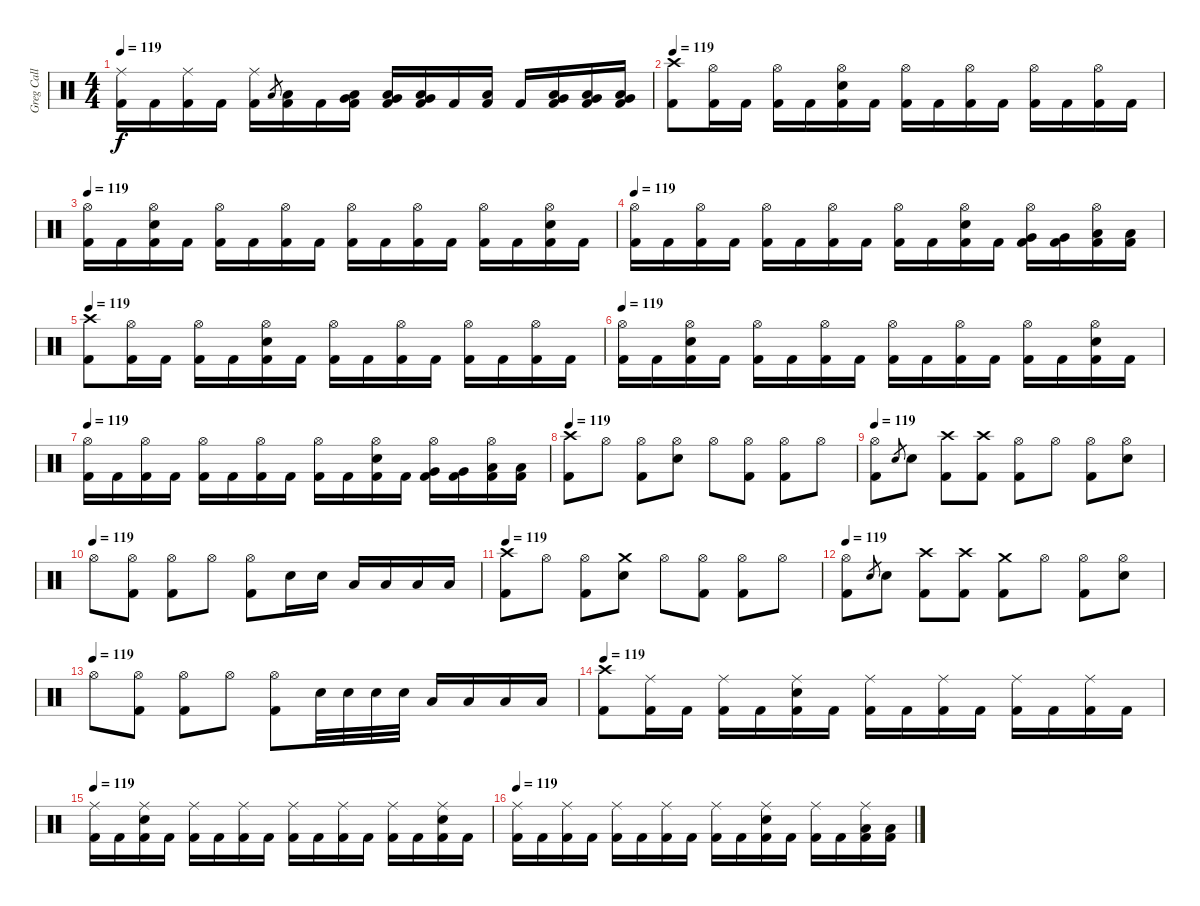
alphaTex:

\track ("Greg Call (Drums)" "Greg Call ") {instrument percussion}
\staff {score}
\articulation defaults
\ts (4 4)
\tempo 119
\clef neutral
\ks c
("Ride (middle)" "Kick (hit) 2").16{dy f} "Kick (hit) 2".16 ("Ride (middle)" "Kick (hit) 2").16 "Kick (hit) 2".16 ("Ride (middle)" "Kick (hit) 2").16 "Low Floor Tom (hit)".8{gr} ("Low Floor Tom (hit)" "Kick (hit) 2").16 "Kick (hit) 2".16 ("Very Low Tom (hit)" "Low Tom (hit)" "Kick (hit) 2").16 ("Very Low Tom (hit)" "Low Tom (hit)" "Kick (hit) 2").16 ("Very Low Tom (hit)" "Low Tom (hit)" "Kick (hit) 2").16 "Kick (hit) 2".16 ("Low Floor Tom (hit)" "Kick (hit) 2").16 "Kick (hit) 2".16 ("Very Low Tom (hit)" "Low Tom (hit)" "Kick (hit) 2").16 ("Very Low Tom (hit)" "Low Tom (hit)" "Kick (hit) 2").16 ("Very Low Tom (hit)" "Low Tom (hit)" "Kick (hit) 2").16 |
\tempo 119
("Crash high (hit)" "Kick (hit) 2").8 ("Hi-Hat (open)" "Kick (hit) 2").16 "Kick (hit) 2".16 ("Hi-Hat (open)" "Kick (hit) 2").16 "Kick (hit) 2".16 ("Snare (hit) 2" "Hi-Hat (open)" "Kick (hit) 2").16 "Kick (hit) 2".16 ("Hi-Hat (open)" "Kick (hit) 2").16 "Kick (hit) 2".16 ("Hi-Hat (open)" "Kick (hit) 2").16 "Kick (hit) 2".16 ("Hi-Hat (open)" "Kick (hit) 2").16 "Kick (hit) 2".16 ("Hi-Hat (open)" "Kick (hit) 2").16 "Kick (hit) 2".16 |
\tempo 119
("Hi-Hat (open)" "Kick (hit) 2").16 "Kick (hit) 2".16 ("Snare (hit) 2" "Hi-Hat (open)" "Kick (hit) 2").16 "Kick (hit) 2".16 ("Hi-Hat (open)" "Kick (hit) 2").16 "Kick (hit) 2".16 ("Hi-Hat (open)" "Kick (hit) 2").16 "Kick (hit) 2".16 ("Hi-Hat (open)" "Kick (hit) 2").16 "Kick (hit) 2".16 ("Hi-Hat (open)" "Kick (hit) 2").16 "Kick (hit) 2".16 ("Hi-Hat (open)" "Kick (hit) 2").16 "Kick (hit) 2".16 ("Snare (hit) 2" "Hi-Hat (open)" "Kick (hit) 2").16 "Kick (hit) 2".16 |
\tempo 119
("Hi-Hat (open)" "Kick (hit) 2").16 "Kick (hit) 2".16 ("Hi-Hat (open)" "Kick (hit) 2").16 "Kick (hit) 2".16 ("Hi-Hat (open)" "Kick (hit) 2").16 "Kick (hit) 2".16 ("Hi-Hat (open)" "Kick (hit) 2").16 "Kick (hit) 2".16 ("Hi-Hat (open)" "Kick (hit) 2").16 "Kick (hit) 2".16 ("Hi-Hat (open)" "Snare (hit) 2" "Kick (hit) 2").16 "Kick (hit) 2".16 ("Very Low Tom (hit)" "Hi-Hat (open)" "Kick (hit) 2").16 ("Very Low Tom (hit)" "Kick (hit) 2").16 ("Low Floor Tom (hit)" "Hi-Hat (open)" "Kick (hit) 2").16 ("Low Floor Tom (hit)" "Kick (hit) 2").16 |
\tempo 119
("Crash high (hit)" "Kick (hit) 2").8 ("Hi-Hat (open)" "Kick (hit) 2").16 "Kick (hit) 2".16 ("Hi-Hat (open)" "Kick (hit) 2").16 "Kick (hit) 2".16 ("Snare (hit) 2" "Hi-Hat (open)" "Kick (hit) 2").16 "Kick (hit) 2".16 ("Hi-Hat (open)" "Kick (hit) 2").16 "Kick (hit) 2".16 ("Hi-Hat (open)" "Kick (hit) 2").16 "Kick (hit) 2".16 ("Hi-Hat (open)" "Kick (hit) 2").16 "Kick (hit) 2".16 ("Hi-Hat (open)" "Kick (hit) 2").16 "Kick (hit) 2".16 |
\tempo 119
("Hi-Hat (open)" "Kick (hit) 2").16 "Kick (hit) 2".16 ("Snare (hit) 2" "Hi-Hat (open)" "Kick (hit) 2").16 "Kick (hit) 2".16 ("Hi-Hat (open)" "Kick (hit) 2").16 "Kick (hit) 2".16 ("Hi-Hat (open)" "Kick (hit) 2").16 "Kick (hit) 2".16 ("Hi-Hat (open)" "Kick (hit) 2").16 "Kick (hit) 2".16 ("Hi-Hat (open)" "Kick (hit) 2").16 "Kick (hit) 2".16 ("Hi-Hat (open)" "Kick (hit) 2").16 "Kick (hit) 2".16 ("Snare (hit) 2" "Hi-Hat (open)" "Kick (hit) 2").16 "Kick (hit) 2".16 |
\tempo 119
("Hi-Hat (open)" "Kick (hit) 2").16 "Kick (hit) 2".16 ("Hi-Hat (open)" "Kick (hit) 2").16 "Kick (hit) 2".16 ("Hi-Hat (open)" "Kick (hit) 2").16 "Kick (hit) 2".16 ("Hi-Hat (open)" "Kick (hit) 2").16 "Kick (hit) 2".16 ("Hi-Hat (open)" "Kick (hit) 2").16 "Kick (hit) 2".16 ("Hi-Hat (open)" "Snare (hit) 2" "Kick (hit) 2").16 "Kick (hit) 2".16 ("Very Low Tom (hit)" "Hi-Hat (open)" "Kick (hit) 2").16 ("Very Low Tom (hit)" "Kick (hit) 2").16 ("Low Floor Tom (hit)" "Hi-Hat (open)" "Kick (hit) 2").16 ("Low Floor Tom (hit)" "Kick (hit) 2").16 |
\tempo 119
("Crash high (hit)" "Kick (hit) 2").8 "Hi-Hat (open)".8 ("Hi-Hat (open)" "Kick (hit) 2").8 ("Hi-Hat (open)" "Snare (hit) 2").8 "Hi-Hat (open)".8 ("Hi-Hat (open)" "Kick (hit) 2").8 ("Hi-Hat (open)" "Kick (hit) 2").8 "Hi-Hat (open)".8 |
\tempo 119
("Hi-Hat (open)" "Kick (hit) 2").8 "Snare (hit) 2".8{gr} "Snare (hit) 2".8 ("Crash high (hit)" "Kick (hit) 2").8 ("Crash high (hit)" "Kick (hit) 2").8 ("Hi-Hat (open)" "Kick (hit) 2").8 "Hi-Hat (open)".8 ("Hi-Hat (open)" "Kick (hit) 2").8 ("Hi-Hat (open)" "Snare (hit) 2").8 |
\tempo (119)
"Hi-Hat (open)".8 ("Hi-Hat (open)" "Kick (hit) 2").8 ("Hi-Hat (open)" "Kick (hit) 2").8 "Hi-Hat (open)".8 ("Hi-Hat (open)" "Kick (hit) 2").8 "Snare (hit) 2".16 "Snare (hit) 2".16 "Low Tom (hit)".16 "Low Tom (hit)".16 "Low Floor Tom (hit)".16 "Low Floor Tom (hit)".16 |
\tempo 119
("Crash high (hit)" "Kick (hit) 2").8 "Hi-Hat (open)".8 ("Hi-Hat (open)" "Kick (hit) 2").8 ("Crash medium (hit)" "Snare (hit) 2").8 "Hi-Hat (open)".8 ("Hi-Hat (open)" "Kick (hit) 2").8 ("Hi-Hat (open)" "Kick (hit) 2").8 "Hi-Hat (open)".8 |
\tempo 119
("Hi-Hat (open)" "Kick (hit) 2").8 "Snare (hit) 2".8{gr} "Snare (hit) 2".8 ("Crash high (hit)" "Kick (hit) 2").8 ("Crash high (hit)" "Kick (hit) 2").8 ("Crash medium (hit)" "Kick (hit) 2").8 "Hi-Hat (open)".8 ("Hi-Hat (open)" "Kick (hit) 2").8 ("Hi-Hat (open)" "Snare (hit) 2").8 |
\tempo (119)
"Hi-Hat (open)".8 ("Hi-Hat (open)" "Kick (hit) 2").8 ("Hi-Hat (open)" "Kick (hit) 2").8 "Hi-Hat (open)".8 ("Hi-Hat (open)" "Kick (hit) 2").8 "Snare (hit) 2".32 "Snare (hit) 2".32 "Snare (hit) 2".32 "Snare (hit) 2".32 "Low Tom (hit)".16 "Low Tom (hit)".16 "Low Floor Tom (hit)".16 "Low Floor Tom (hit)".16 |
\tempo 119
("Crash high (hit)" "Kick (hit) 2").8 ("Ride (middle)" "Kick (hit) 2").16 "Kick (hit) 2".16 ("Ride (middle)" "Kick (hit) 2").16 "Kick (hit) 2".16 ("Snare (hit) 2" "Ride (middle)" "Kick (hit) 2").16 "Kick (hit) 2".16 ("Ride (middle)" "Kick (hit) 2").16 "Kick (hit) 2".16 ("Ride (middle)" "Kick (hit) 2").16 "Kick (hit) 2".16 ("Ride (middle)" "Kick (hit) 2").16 "Kick (hit) 2".16 ("Ride (middle)" "Kick (hit) 2").16 "Kick (hit) 2".16 |
\tempo 119
("Ride (middle)" "Kick (hit) 2").16 "Kick (hit) 2".16 ("Snare (hit) 2" "Ride (middle)" "Kick (hit) 2").16 "Kick (hit) 2".16 ("Ride (middle)" "Kick (hit) 2").16 "Kick (hit) 2".16 ("Ride (middle)" "Kick (hit) 2").16 "Kick (hit) 2".16 ("Ride (middle)" "Kick (hit) 2").16 "Kick (hit) 2".16 ("Ride (middle)" "Kick (hit) 2").16 "Kick (hit) 2".16 ("Ride (middle)" "Kick (hit) 2").16 "Kick (hit) 2".16 ("Snare (hit) 2" "Ride (middle)" "Kick (hit) 2").16 "Kick (hit) 2".16 |
\tempo 119
("Ride (middle)" "Kick (hit) 2").16 "Kick (hit) 2".16 ("Ride (middle)" "Kick (hit) 2").16 "Kick (hit) 2".16 ("Ride (middle)" "Kick (hit) 2").16 "Kick (hit) 2".16 ("Ride (middle)" "Kick (hit) 2").16 "Kick (hit) 2".16 ("Ride (middle)" "Kick (hit) 2").16 "Kick (hit) 2".16 ("Ride (middle)" "Snare (hit) 2" "Kick (hit) 2").16 "Kick (hit) 2".16 ("Ride (middle)" "Kick (hit) 2").16 "Kick (hit) 2".16 ("Low Floor Tom (hit)" "Ride (middle)" "Kick (hit) 2").16 ("Low Floor Tom (hit)" "Kick (hit) 2").16
